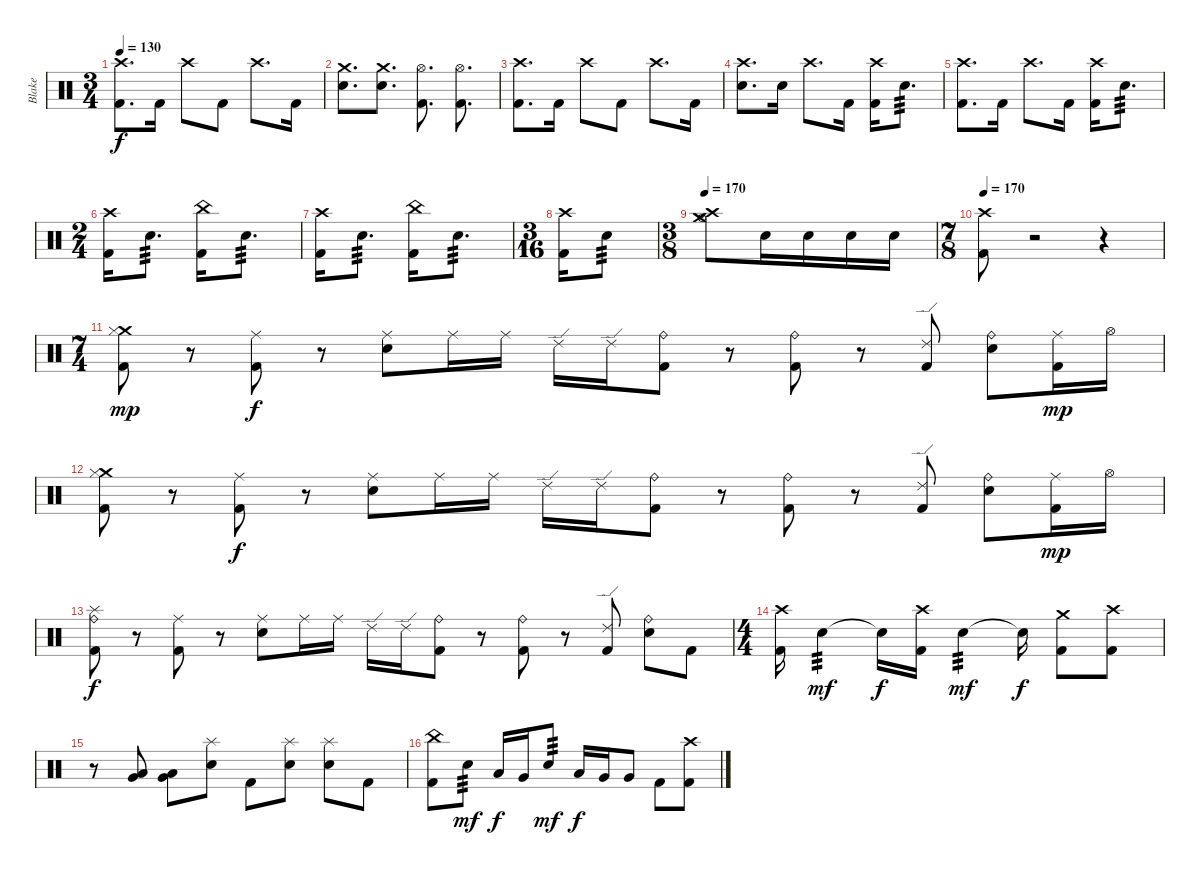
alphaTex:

\track ("Blake" "Blake") {instrument percussion}
\staff {score}
\articulation defaults
\ts (3 4)
\tempo 130
\clef neutral
\ks c
("Crash high (hit)" "Kick (hit) 2").8{d dy f} "Kick (hit) 2".16 "Crash high (hit)".8 "Kick (hit) 2".8 "Crash high (hit)".8{d} "Kick (hit) 2".16 |
("Crash medium (hit)" "Snare (hit) 2").8{d} ("Crash medium (hit)" "Snare (hit) 2").8{d} ("Hi-Hat (open)" "Kick (hit) 2").8{d} ("Hi-Hat (open)" "Kick (hit) 2").8{d} |
("Crash high (hit)" "Kick (hit) 2").8{d} "Kick (hit) 2".16 "Crash high (hit)".8 "Kick (hit) 2".8 "Crash high (hit)".8{d} "Kick (hit) 2".16 |
("Crash high (hit)" "Snare (hit) 2").8{d} "Snare (hit) 2".16 "Crash high (hit)".8{d} "Kick (hit) 2".16 ("Crash high (hit)" "Kick (hit) 2").16 "Snare (hit) 2".8{d tp 3} |
("Crash high (hit)" "Kick (hit) 2").8{d} "Kick (hit) 2".16 "Crash high (hit)".8{d} "Kick (hit) 2".16 ("Crash high (hit)" "Kick (hit) 2").16 "Snare (hit) 2".8{d tp 3} |
\ts (2 4)
("Crash high (hit)" "Kick (hit) 2").16 "Snare (hit) 2".8{d tp 3} ("China (hit)" "Kick (hit) 2").16 "Snare (hit) 2".8{d tp 3} |
("Crash high (hit)" "Kick (hit) 2").16 "Snare (hit) 2".8{d tp 3} ("China (hit)" "Kick (hit) 2").16 "Snare (hit) 2".8{d tp 3} |
\ts (3 16)
("Crash high (hit)" "Kick (hit) 2").16 "Snare (hit) 2".8{tp 3} |
\ts (3 8)
\tempo 170
("Crash medium (hit)" "Crash high (hit)" "Hi-Hat (open)").8 "Snare (hit) 2".16 "Snare (hit) 2".16 "Snare (hit) 2".16 "Snare (hit) 2".16 |
\ts (7 8)
\tempo 170
("Crash high (hit)" "Kick (hit) 2").8 r.2 r.4 |
\ts (7 4)
("Crash medium (hit)" "Hi-Hat (closed)" "Kick (hit) 2").8{dy mp} r.8 ("Ride (middle)" "Kick (hit) 2").8{dy f} r.8 ("Ride (middle)" "Snare (hit) 2").8 "Ride (middle)".16 "Ride (middle)".16 "Ride (edge) 2".16 "Ride (edge) 2".16 ("Ride (bell)" "Kick (hit) 2").8 r.8 ("Ride (bell)" "Kick (hit) 2").8 r.8 ("Ride (edge) 2" "Kick (hit) 2").8 ("Ride (bell)" "Snare (hit) 2").8 ("Ride (middle)" "Kick (hit) 2").16{dy mp} "Hi-Hat (open)".16 |
("Crash medium (hit)" "Hi-Hat (closed)" "Kick (hit) 2").8 r.8 ("Ride (middle)" "Kick (hit) 2").8{dy f} r.8 ("Ride (middle)" "Snare (hit) 2").8 "Ride (middle)".16 "Ride (middle)".16 "Ride (edge) 2".16 "Ride (edge) 2".16 ("Ride (bell)" "Kick (hit) 2").8 r.8 ("Ride (bell)" "Kick (hit) 2").8 r.8 ("Ride (edge) 2" "Kick (hit) 2").8 ("Ride (bell)" "Snare (hit) 2").8 ("Ride (middle)" "Kick (hit) 2").16{dy mp} "Hi-Hat (open)".16 |
("Splash (hit)" "Ride (bell)" "Kick (hit) 2").8{dy f} r.8 ("Ride (middle)" "Kick (hit) 2").8 r.8 ("Ride (middle)" "Snare (hit) 2").8 "Ride (middle)".16 "Ride (middle)".16 "Ride (edge) 2".16 "Ride (edge) 2".16 ("Ride (bell)" "Kick (hit) 2").8 r.8 ("Ride (bell)" "Kick (hit) 2").8 r.8 ("Ride (edge) 2" "Kick (hit) 2").8 ("Ride (bell)" "Snare (hit) 2").8 "Kick (hit) 2".8 |
\ts (4 4)
("Crash high (hit)" "Kick (hit) 2").16 "Snare (hit) 2".4{tp 3 dy mf} "Snare (hit) 2"{t}.16{dy f} ("Crash high (hit)" "Kick (hit) 2").16 "Snare (hit) 2".4{tp 3 dy mf} "Snare (hit) 2"{t}.16{dy f} ("Crash medium (hit)" "Kick (hit) 2").8 ("Crash high (hit)" "Kick (hit) 2").8 |
r.8 ("Low Tom (hit)" "Very Low Tom (hit)").8 ("Low Tom (hit)" "Very Low Tom (hit)").8 ("Splash (hit)" "Snare (hit) 2").8 "Kick (hit) 2".8 ("Splash (hit)" "Snare (hit) 2").8 ("Splash (hit)" "Snare (hit) 2").8 "Kick (hit) 2".8 |
("China (hit)" "Kick (hit) 2").8 "Snare (hit) 2".8{tp 3 dy mf} "Low Tom (hit)".16{dy f} "Very Low Tom (hit)".16 "Snare (hit) 2".8{tp 3 dy mf} "Low Tom (hit)".16{dy f} "Very Low Tom (hit)".16 "Very Low Tom (hit)".8 "Kick (hit) 2".8 ("Crash high (hit)" "Kick (hit) 2").8
